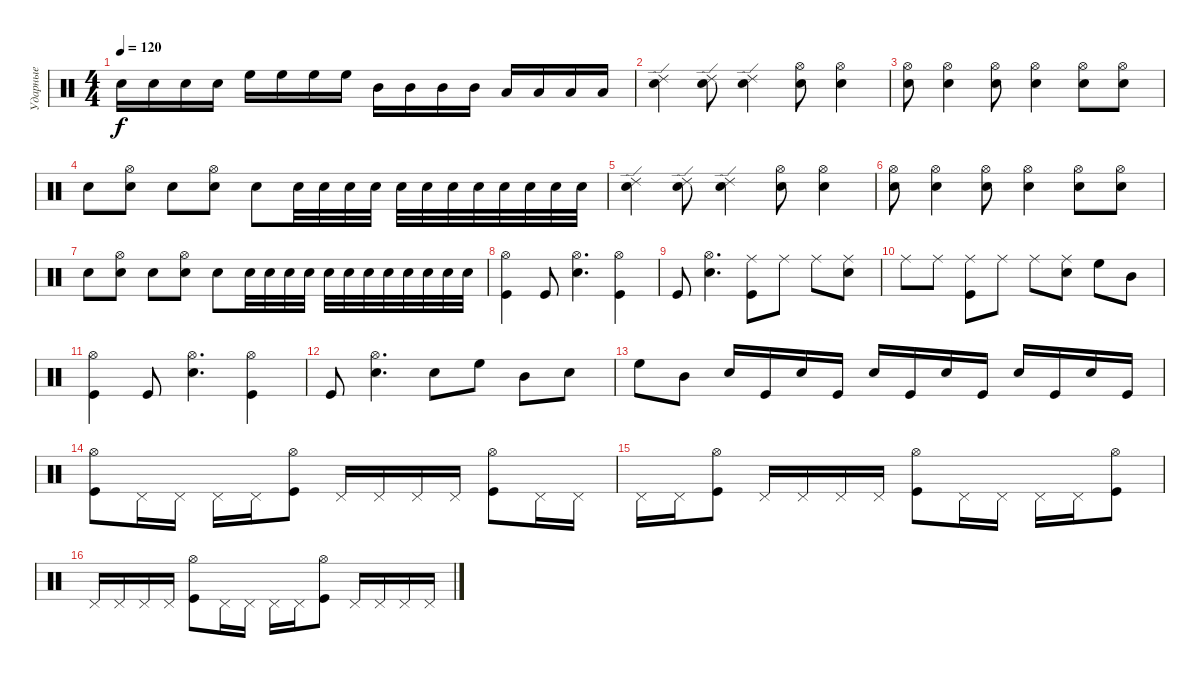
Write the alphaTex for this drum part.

\track ("Ударные" "Ударные") {instrument percussion}
\staff {score}
\articulation defaults
\ts (4 4)
\tempo 120
\clef neutral
\ks c "Electric Snare (hit)".16{dy f} "Electric Snare (hit)".16 "Electric Snare (hit)".16 "Electric Snare (hit)".16 "High Floor Tom (hit)".16 "High Floor Tom (hit)".16 "High Floor Tom (hit)".16 "High Floor Tom (hit)".16 "Mid Tom (hit)".16 "Mid Tom (hit)".16 "Mid Tom (hit)".16 "Mid Tom (hit)".16 "Low Tom (hit)".16 "Low Tom (hit)".16 "Low Tom (hit)".16 "Low Tom (hit)".16
|
("Ride (edge) 2" "Electric Snare (hit)").4 ("Ride (edge) 2" "Electric Snare (hit)").8 ("Ride (edge) 2" "Electric Snare (hit)").4 ("Hi-Hat (open)" "Electric Snare (hit)").8 ("Hi-Hat (open)" "Electric Snare (hit)").4 |
("Hi-Hat (open)" "Electric Snare (hit)").8 ("Hi-Hat (open)" "Electric Snare (hit)").4 ("Hi-Hat (open)" "Electric Snare (hit)").8 ("Hi-Hat (open)" "Electric Snare (hit)").4 ("Hi-Hat (open)" "Electric Snare (hit)").8 ("Hi-Hat (open)" "Electric Snare (hit)").8 |
"Electric Snare (hit)".8 ("Hi-Hat (open)" "Electric Snare (hit)").8 "Electric Snare (hit)".8 ("Hi-Hat (open)" "Electric Snare (hit)").8 "Electric Snare (hit)".8 "Electric Snare (hit)".32 "Electric Snare (hit)".32 "Electric Snare (hit)".32 "Electric Snare (hit)".32 "Electric Snare (hit)".32 "Electric Snare (hit)".32 "Electric Snare (hit)".32 "Electric Snare (hit)".32 "Electric Snare (hit)".32 "Electric Snare (hit)".32 "Electric Snare (hit)".32 "Electric Snare (hit)".32 |
("Ride (edge) 2" "Electric Snare (hit)").4 ("Ride (edge) 2" "Electric Snare (hit)").8 ("Ride (edge) 2" "Electric Snare (hit)").4 ("Hi-Hat (open)" "Electric Snare (hit)").8 ("Hi-Hat (open)" "Electric Snare (hit)").4 |
("Hi-Hat (open)" "Electric Snare (hit)").8 ("Hi-Hat (open)" "Electric Snare (hit)").4 ("Hi-Hat (open)" "Electric Snare (hit)").8 ("Hi-Hat (open)" "Electric Snare (hit)").4 ("Hi-Hat (open)" "Electric Snare (hit)").8 ("Hi-Hat (open)" "Electric Snare (hit)").8 |
"Electric Snare (hit)".8 ("Hi-Hat (open)" "Electric Snare (hit)").8 "Electric Snare (hit)".8 ("Hi-Hat (open)" "Electric Snare (hit)").8 "Electric Snare (hit)".8 "Electric Snare (hit)".32 "Electric Snare (hit)".32 "Electric Snare (hit)".32 "Electric Snare (hit)".32 "Electric Snare (hit)".32 "Electric Snare (hit)".32 "Electric Snare (hit)".32 "Electric Snare (hit)".32 "Electric Snare (hit)".32 "Electric Snare (hit)".32 "Electric Snare (hit)".32 "Electric Snare (hit)".32 |
("Kick (hit)" "Hi-Hat (open)").4 "Kick (hit)".8 ("Electric Snare (hit)" "Hi-Hat (open)").4{d} ("Kick (hit)" "Hi-Hat (open)").4 |
"Kick (hit)".8 ("Electric Snare (hit)" "Hi-Hat (open)").4{d} ("Kick (hit)" "Ride (middle)").8 "Ride (middle)".8 "Ride (middle)".8 ("Electric Snare (hit)" "Ride (middle)").8 |
"Ride (middle)".8 "Ride (middle)".8 ("Kick (hit)" "Ride (middle)").8 "Ride (middle)".8 "Ride (middle)".8 ("Electric Snare (hit)" "Ride (middle)").8 "High Floor Tom (hit)".8 "Mid Tom (hit)".8 |
("Kick (hit)" "Hi-Hat (open)").4 "Kick (hit)".8 ("Electric Snare (hit)" "Hi-Hat (open)").4{d} ("Kick (hit)" "Hi-Hat (open)").4 |
"Kick (hit)".8 ("Electric Snare (hit)" "Hi-Hat (open)").4{d} "Electric Snare (hit)".8 "High Floor Tom (hit)".8 "Mid Tom (hit)".8 "Electric Snare (hit)".8 |
"High Floor Tom (hit)".8 "Mid Tom (hit)".8 "Electric Snare (hit)".16 "Kick (hit)".16 "Electric Snare (hit)".16 "Kick (hit)".16 "Electric Snare (hit)".16 "Kick (hit)".16 "Electric Snare (hit)".16 "Kick (hit)".16 "Electric Snare (hit)".16 "Kick (hit)".16 "Electric Snare (hit)".16 "Kick (hit)".16 |
("Kick (hit)" "Hi-Hat (open)").8 "Pedal Hi-Hat (hit)".16 "Pedal Hi-Hat (hit)".16 "Pedal Hi-Hat (hit)".16 "Pedal Hi-Hat (hit)".16 ("Kick (hit)" "Hi-Hat (open)").8 "Pedal Hi-Hat (hit)".16 "Pedal Hi-Hat (hit)".16 "Pedal Hi-Hat (hit)".16 "Pedal Hi-Hat (hit)".16 ("Kick (hit)" "Hi-Hat (open)").8 "Pedal Hi-Hat (hit)".16 "Pedal Hi-Hat (hit)".16 |
"Pedal Hi-Hat (hit)".16 "Pedal Hi-Hat (hit)".16 ("Kick (hit)" "Hi-Hat (open)").8 "Pedal Hi-Hat (hit)".16 "Pedal Hi-Hat (hit)".16 "Pedal Hi-Hat (hit)".16 "Pedal Hi-Hat (hit)".16 ("Kick (hit)" "Hi-Hat (open)").8 "Pedal Hi-Hat (hit)".16 "Pedal Hi-Hat (hit)".16 "Pedal Hi-Hat (hit)".16 "Pedal Hi-Hat (hit)".16 ("Kick (hit)" "Hi-Hat (open)").8 |
"Pedal Hi-Hat (hit)".16 "Pedal Hi-Hat (hit)".16 "Pedal Hi-Hat (hit)".16 "Pedal Hi-Hat (hit)".16 ("Kick (hit)" "Hi-Hat (open)").8 "Pedal Hi-Hat (hit)".16 "Pedal Hi-Hat (hit)".16 "Pedal Hi-Hat (hit)".16 "Pedal Hi-Hat (hit)".16 ("Kick (hit)" "Hi-Hat (open)").8 "Pedal Hi-Hat (hit)".16 "Pedal Hi-Hat (hit)".16 "Pedal Hi-Hat (hit)".16 "Pedal Hi-Hat (hit)".16
